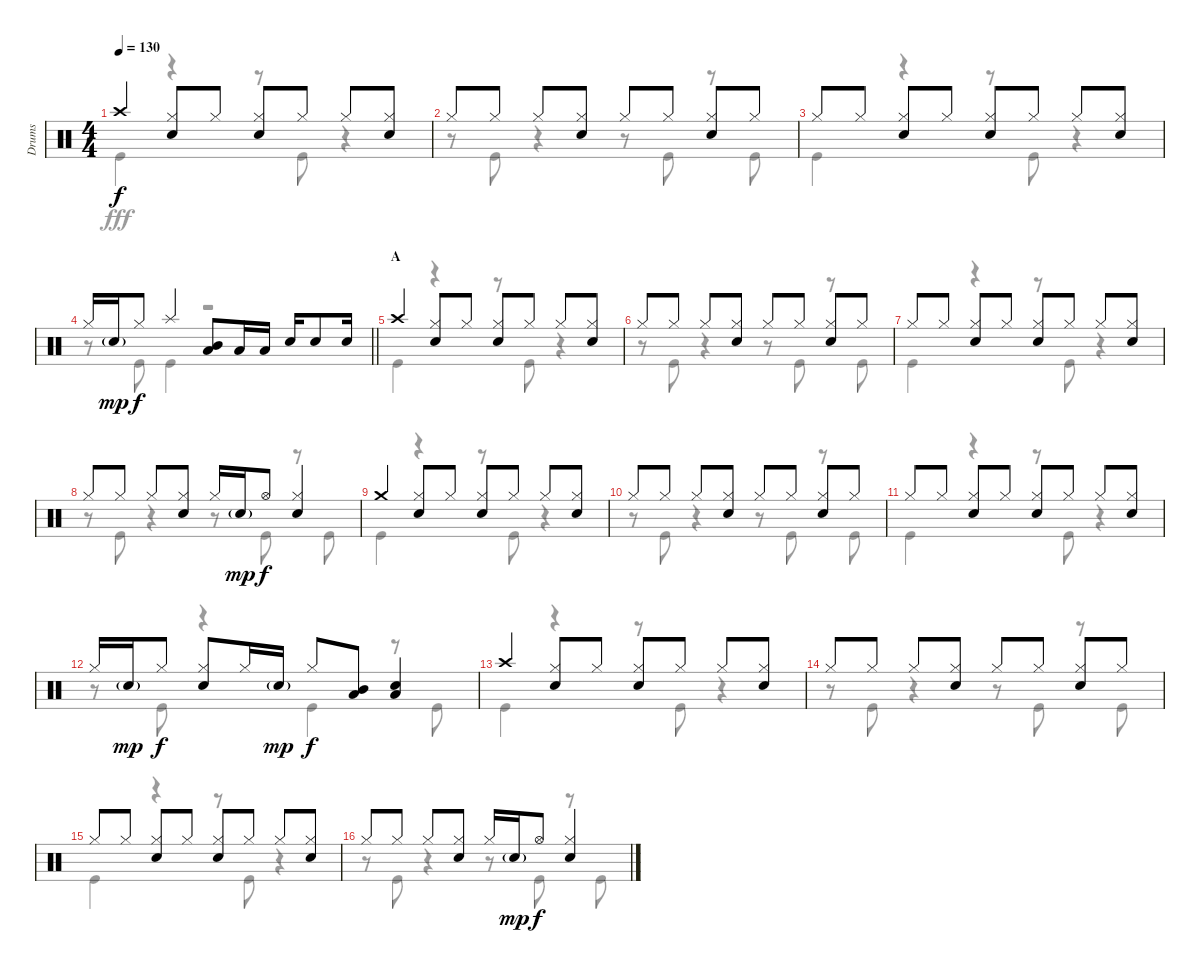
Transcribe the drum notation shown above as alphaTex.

\track ("Drums" "Drums") {instrument percussion}
\staff {score}
\articulation defaults
\voice
\ts (4 4)
\tempo 130
\clef neutral
\ks c "Crash high (hit)".4{dy f}
("Hi-Hat (closed)" "Snare (hit) 2").8 "Hi-Hat (closed)".8 ("Hi-Hat (closed)" "Snare (hit) 2").8 "Hi-Hat (closed)".8 "Hi-Hat (closed)".8 ("Hi-Hat (closed)" "Snare (hit) 2").8 |
"Hi-Hat (closed)".8 "Hi-Hat (closed)".8 "Hi-Hat (closed)".8 ("Hi-Hat (closed)" "Snare (hit) 2").8 "Hi-Hat (closed)".8 "Hi-Hat (closed)".8 ("Hi-Hat (closed)" "Snare (hit) 2").8 "Hi-Hat (closed)".8 |
"Hi-Hat (closed)".8 "Hi-Hat (closed)".8 ("Hi-Hat (closed)" "Snare (hit) 2").8 "Hi-Hat (closed)".8 ("Hi-Hat (closed)" "Snare (hit) 2").8 "Hi-Hat (closed)".8 "Hi-Hat (closed)".8 ("Hi-Hat (closed)" "Snare (hit) 2").8 |
\barLineRight lightlight "Hi-Hat (closed)".16 "Snare (hit) 2"{g}.16{dy mp} "Hi-Hat (closed)".8{dy f} "Splash (hit)".4
("Mid Tom (hit)" "Low Tom (hit)").8 "Low Tom (hit)".16 "Low Tom (hit)".16 "Snare (hit) 2".16 "Snare (hit) 2".8 "Snare (hit) 2".16 |
\section ("" "A")
"Crash high (hit)".4 ("Hi-Hat (closed)" "Snare (hit) 2").8 "Hi-Hat (closed)".8 ("Hi-Hat (closed)" "Snare (hit) 2").8 "Hi-Hat (closed)".8 "Hi-Hat (closed)".8 ("Hi-Hat (closed)" "Snare (hit) 2").8 |
"Hi-Hat (closed)".8 "Hi-Hat (closed)".8 "Hi-Hat (closed)".8 ("Hi-Hat (closed)" "Snare (hit) 2").8 "Hi-Hat (closed)".8 "Hi-Hat (closed)".8 ("Hi-Hat (closed)" "Snare (hit) 2").8 "Hi-Hat (closed)".8 |
"Hi-Hat (closed)".8 "Hi-Hat (closed)".8 ("Hi-Hat (closed)" "Snare (hit) 2").8 "Hi-Hat (closed)".8 ("Hi-Hat (closed)" "Snare (hit) 2").8 "Hi-Hat (closed)".8 "Hi-Hat (closed)".8 ("Hi-Hat (closed)" "Snare (hit) 2").8 |
"Hi-Hat (closed)".8 "Hi-Hat (closed)".8 "Hi-Hat (closed)".8 ("Hi-Hat (closed)" "Snare (hit) 2").8 "Hi-Hat (closed)".16 "Snare (hit) 2"{g}.16{dy mp} "Hi-Hat (open)".8{dy f} ("Hi-Hat (closed)" "Snare (hit) 2").4 |
"Crash medium (hit)".4 ("Hi-Hat (closed)" "Snare (hit) 2").8 "Hi-Hat (closed)".8 ("Hi-Hat (closed)" "Snare (hit) 2").8 "Hi-Hat (closed)".8 "Hi-Hat (closed)".8 ("Hi-Hat (closed)" "Snare (hit) 2").8 |
"Hi-Hat (closed)".8 "Hi-Hat (closed)".8 "Hi-Hat (closed)".8 ("Hi-Hat (closed)" "Snare (hit) 2").8 "Hi-Hat (closed)".8 "Hi-Hat (closed)".8 ("Hi-Hat (closed)" "Snare (hit) 2").8 "Hi-Hat (closed)".8 |
"Hi-Hat (closed)".8 "Hi-Hat (closed)".8 ("Hi-Hat (closed)" "Snare (hit) 2").8 "Hi-Hat (closed)".8 ("Hi-Hat (closed)" "Snare (hit) 2").8 "Hi-Hat (closed)".8 "Hi-Hat (closed)".8 ("Hi-Hat (closed)" "Snare (hit) 2").8 |
"Hi-Hat (closed)".16 "Snare (hit) 2"{g}.16{dy mp} "Hi-Hat (closed)".8{dy f} ("Hi-Hat (closed)" "Snare (hit) 2").8 "Hi-Hat (closed)".16 "Snare (hit) 2"{g}.16{dy mp} "Hi-Hat (closed)".8{dy f} ("Mid Tom (hit)" "Low Tom (hit)").8 ("Snare (hit) 2" "Low Tom (hit)").4 |
"Crash high (hit)".4 ("Hi-Hat (closed)" "Snare (hit) 2").8 "Hi-Hat (closed)".8 ("Hi-Hat (closed)" "Snare (hit) 2").8 "Hi-Hat (closed)".8 "Hi-Hat (closed)".8 ("Hi-Hat (closed)" "Snare (hit) 2").8 |
"Hi-Hat (closed)".8 "Hi-Hat (closed)".8 "Hi-Hat (closed)".8 ("Hi-Hat (closed)" "Snare (hit) 2").8 "Hi-Hat (closed)".8 "Hi-Hat (closed)".8 ("Hi-Hat (closed)" "Snare (hit) 2").8 "Hi-Hat (closed)".8 |
"Hi-Hat (closed)".8 "Hi-Hat (closed)".8 ("Hi-Hat (closed)" "Snare (hit) 2").8 "Hi-Hat (closed)".8 ("Hi-Hat (closed)" "Snare (hit) 2").8 "Hi-Hat (closed)".8 "Hi-Hat (closed)".8 ("Hi-Hat (closed)" "Snare (hit) 2").8 |
"Hi-Hat (closed)".8 "Hi-Hat (closed)".8 "Hi-Hat (closed)".8 ("Hi-Hat (closed)" "Snare (hit) 2").8 "Hi-Hat (closed)".16 "Snare (hit) 2"{g}.16{dy mp} "Hi-Hat (open)".8{dy f} ("Hi-Hat (closed)" "Snare (hit) 2").4
\voice
\clef neutral
\ottava regular
\simile none
\ks c "Kick (hit)".4{dy fff}
r.4 r.8 "Kick (hit)".8 r.4 |
r.8 "Kick (hit)".8 r.4 r.8 "Kick (hit)".8 r.8 "Kick (hit)".8 |
"Kick (hit)".4 r.4 r.8 "Kick (hit)".8 r.4 |
\barLineRight lightlight
r.8 "Kick (hit)".8 "Kick (hit)".4 r.2 |
"Kick (hit)".4 r.4 r.8 "Kick (hit)".8 r.4 |
r.8 "Kick (hit)".8 r.4 r.8 "Kick (hit)".8 r.8 "Kick (hit)".8 |
"Kick (hit)".4 r.4 r.8 "Kick (hit)".8 r.4 |
r.8 "Kick (hit)".8 r.4 r.8 "Kick (hit)".8 r.8 "Kick (hit)".8 |
"Kick (hit)".4 r.4 r.8 "Kick (hit)".8 r.4 |
r.8 "Kick (hit)".8 r.4 r.8 "Kick (hit)".8 r.8 "Kick (hit)".8 |
"Kick (hit)".4 r.4 r.8 "Kick (hit)".8 r.4 |
r.8 "Kick (hit)".8 r.4 "Kick (hit)".4 r.8 "Kick (hit)".8 |
"Kick (hit)".4 r.4 r.8 "Kick (hit)".8 r.4 |
r.8 "Kick (hit)".8 r.4 r.8 "Kick (hit)".8 r.8 "Kick (hit)".8 |
"Kick (hit)".4 r.4 r.8 "Kick (hit)".8 r.4 |
r.8 "Kick (hit)".8 r.4 r.8 "Kick (hit)".8 r.8 "Kick (hit)".8
